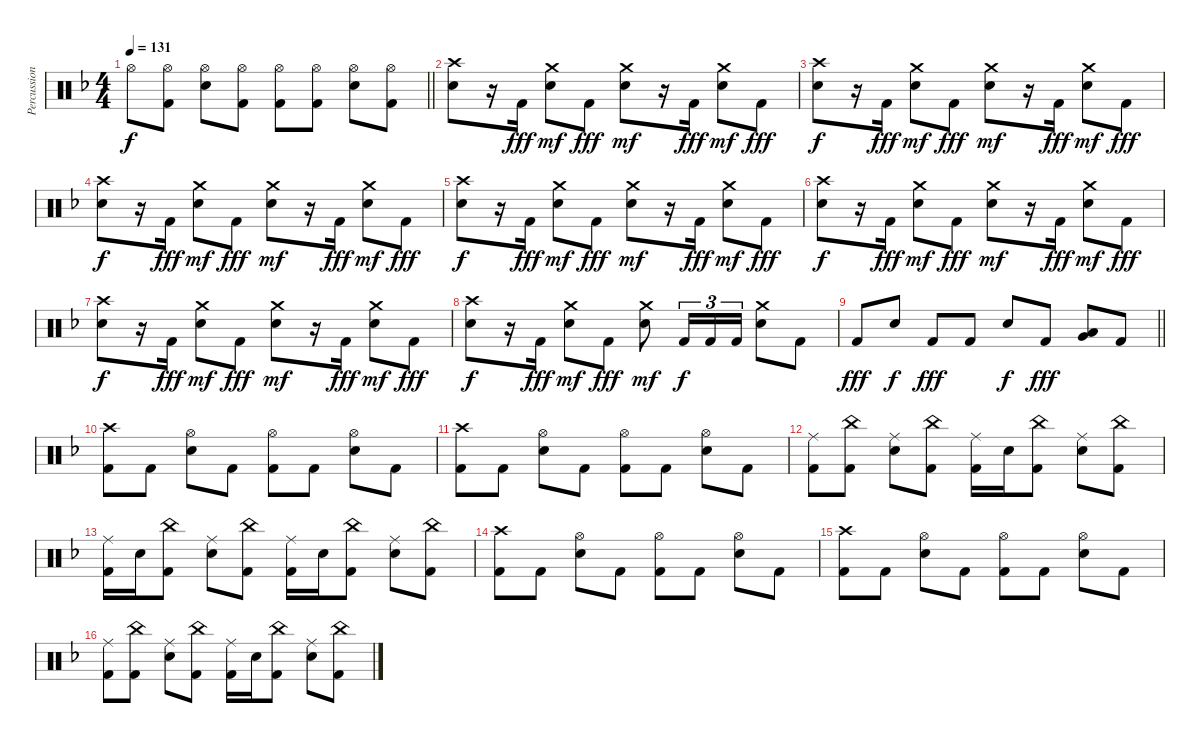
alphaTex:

\track ("Percussion" "Percussion") {instrument percussion}
\staff {score}
\articulation defaults
\ts (4 4)
\tempo 131
\clef neutral
\barLineRight lightlight
\ks f "Hi-Hat (open)".8{dy f}
("Hi-Hat (open)" "Kick (hit) 2").8 ("Hi-Hat (open)" "Electric Snare (hit)").8 ("Hi-Hat (open)" "Kick (hit) 2").8 ("Hi-Hat (open)" "Kick (hit) 2").8 ("Hi-Hat (open)" "Kick (hit) 2").8 ("Hi-Hat (open)" "Electric Snare (hit)").8 ("Hi-Hat (open)" "Kick (hit) 2").8 |
("Crash high (hit)" "Electric Snare (hit)").8 r.16 "Kick (hit) 2".16{dy fff} ("Crash medium (hit)" "Electric Snare (hit)").8{dy mf} "Kick (hit) 2".8{dy fff} ("Crash medium (hit)" "Electric Snare (hit)").8{dy mf} r.16 "Kick (hit) 2".16{dy fff} ("Crash medium (hit)" "Electric Snare (hit)").8{dy mf} "Kick (hit) 2".8{dy fff} |
("Crash high (hit)" "Electric Snare (hit)").8{dy f} r.16 "Kick (hit) 2".16{dy fff} ("Crash medium (hit)" "Electric Snare (hit)").8{dy mf} "Kick (hit) 2".8{dy fff} ("Crash medium (hit)" "Electric Snare (hit)").8{dy mf} r.16 "Kick (hit) 2".16{dy fff} ("Crash medium (hit)" "Electric Snare (hit)").8{dy mf} "Kick (hit) 2".8{dy fff} |
("Crash high (hit)" "Electric Snare (hit)").8{dy f} r.16 "Kick (hit) 2".16{dy fff} ("Crash medium (hit)" "Electric Snare (hit)").8{dy mf} "Kick (hit) 2".8{dy fff} ("Crash medium (hit)" "Electric Snare (hit)").8{dy mf} r.16 "Kick (hit) 2".16{dy fff} ("Crash medium (hit)" "Electric Snare (hit)").8{dy mf} "Kick (hit) 2".8{dy fff} |
("Crash high (hit)" "Electric Snare (hit)").8{dy f} r.16 "Kick (hit) 2".16{dy fff} ("Crash medium (hit)" "Electric Snare (hit)").8{dy mf} "Kick (hit) 2".8{dy fff} ("Crash medium (hit)" "Electric Snare (hit)").8{dy mf} r.16 "Kick (hit) 2".16{dy fff} ("Crash medium (hit)" "Electric Snare (hit)").8{dy mf} "Kick (hit) 2".8{dy fff} |
("Crash high (hit)" "Electric Snare (hit)").8{dy f} r.16 "Kick (hit) 2".16{dy fff} ("Crash medium (hit)" "Electric Snare (hit)").8{dy mf} "Kick (hit) 2".8{dy fff} ("Crash medium (hit)" "Electric Snare (hit)").8{dy mf} r.16 "Kick (hit) 2".16{dy fff} ("Crash medium (hit)" "Electric Snare (hit)").8{dy mf} "Kick (hit) 2".8{dy fff} |
("Crash high (hit)" "Electric Snare (hit)").8{dy f} r.16 "Kick (hit) 2".16{dy fff} ("Crash medium (hit)" "Electric Snare (hit)").8{dy mf} "Kick (hit) 2".8{dy fff} ("Crash medium (hit)" "Electric Snare (hit)").8{dy mf} r.16 "Kick (hit) 2".16{dy fff} ("Crash medium (hit)" "Electric Snare (hit)").8{dy mf} "Kick (hit) 2".8{dy fff} |
("Crash high (hit)" "Electric Snare (hit)").8{dy f} r.16 "Kick (hit) 2".16{dy fff} ("Crash medium (hit)" "Electric Snare (hit)").8{dy mf} "Kick (hit) 2".8{dy fff} ("Crash medium (hit)" "Electric Snare (hit)").8{dy mf} "Kick (hit) 2".16{tu (3 2) dy f} "Kick (hit) 2".16{tu (3 2)} "Kick (hit) 2".16{tu (3 2)} ("Crash medium (hit)" "Electric Snare (hit)").8 "Kick (hit) 2".8 |
\barLineRight lightlight "Kick (hit) 2".8{dy fff} "Electric Snare (hit)".8{dy f} "Kick (hit) 2".8{dy fff} "Kick (hit) 2".8 "Electric Snare (hit)".8{dy f} "Kick (hit) 2".8{dy fff}
("Low Tom (hit)" "Very Low Tom (hit)").8 "Kick (hit) 2".8 |
("Crash high (hit)" "Kick (hit) 2").8 "Kick (hit) 2".8 ("Hi-Hat (open)" "Electric Snare (hit)").8 "Kick (hit) 2".8 ("Hi-Hat (open)" "Kick (hit) 2").8 "Kick (hit) 2".8 ("Hi-Hat (open)" "Electric Snare (hit)").8 "Kick (hit) 2".8 |
("Crash high (hit)" "Kick (hit) 2").8 "Kick (hit) 2".8 ("Hi-Hat (open)" "Electric Snare (hit)").8 "Kick (hit) 2".8 ("Hi-Hat (open)" "Kick (hit) 2").8 "Kick (hit) 2".8 ("Hi-Hat (open)" "Electric Snare (hit)").8 "Kick (hit) 2".8 |
("Ride (middle)" "Kick (hit) 2").8 ("China (hit)" "Kick (hit) 2").8 ("Ride (middle)" "Electric Snare (hit)").8 ("China (hit)" "Kick (hit) 2").8 ("Ride (middle)" "Kick (hit) 2").16 "Electric Snare (hit)".16 ("China (hit)" "Kick (hit) 2").8 ("Ride (middle)" "Electric Snare (hit)").8 ("China (hit)" "Kick (hit) 2").8 |
("Ride (middle)" "Kick (hit) 2").16 "Electric Snare (hit)".16 ("China (hit)" "Kick (hit) 2").8 ("Ride (middle)" "Electric Snare (hit)").8 ("China (hit)" "Kick (hit) 2").8 ("Ride (middle)" "Kick (hit) 2").16 "Electric Snare (hit)".16 ("China (hit)" "Kick (hit) 2").8 ("Ride (middle)" "Electric Snare (hit)").8 ("China (hit)" "Kick (hit) 2").8 |
("Crash high (hit)" "Kick (hit) 2").8 "Kick (hit) 2".8 ("Hi-Hat (open)" "Electric Snare (hit)").8 "Kick (hit) 2".8 ("Hi-Hat (open)" "Kick (hit) 2").8 "Kick (hit) 2".8 ("Hi-Hat (open)" "Electric Snare (hit)").8 "Kick (hit) 2".8 |
("Crash high (hit)" "Kick (hit) 2").8 "Kick (hit) 2".8 ("Hi-Hat (open)" "Electric Snare (hit)").8 "Kick (hit) 2".8 ("Hi-Hat (open)" "Kick (hit) 2").8 "Kick (hit) 2".8 ("Hi-Hat (open)" "Electric Snare (hit)").8 "Kick (hit) 2".8 |
("Ride (middle)" "Kick (hit) 2").8 ("China (hit)" "Kick (hit) 2").8 ("Ride (middle)" "Electric Snare (hit)").8 ("China (hit)" "Kick (hit) 2").8 ("Ride (middle)" "Kick (hit) 2").16 "Electric Snare (hit)".16 ("China (hit)" "Kick (hit) 2").8 ("Ride (middle)" "Electric Snare (hit)").8 ("China (hit)" "Kick (hit) 2").8
